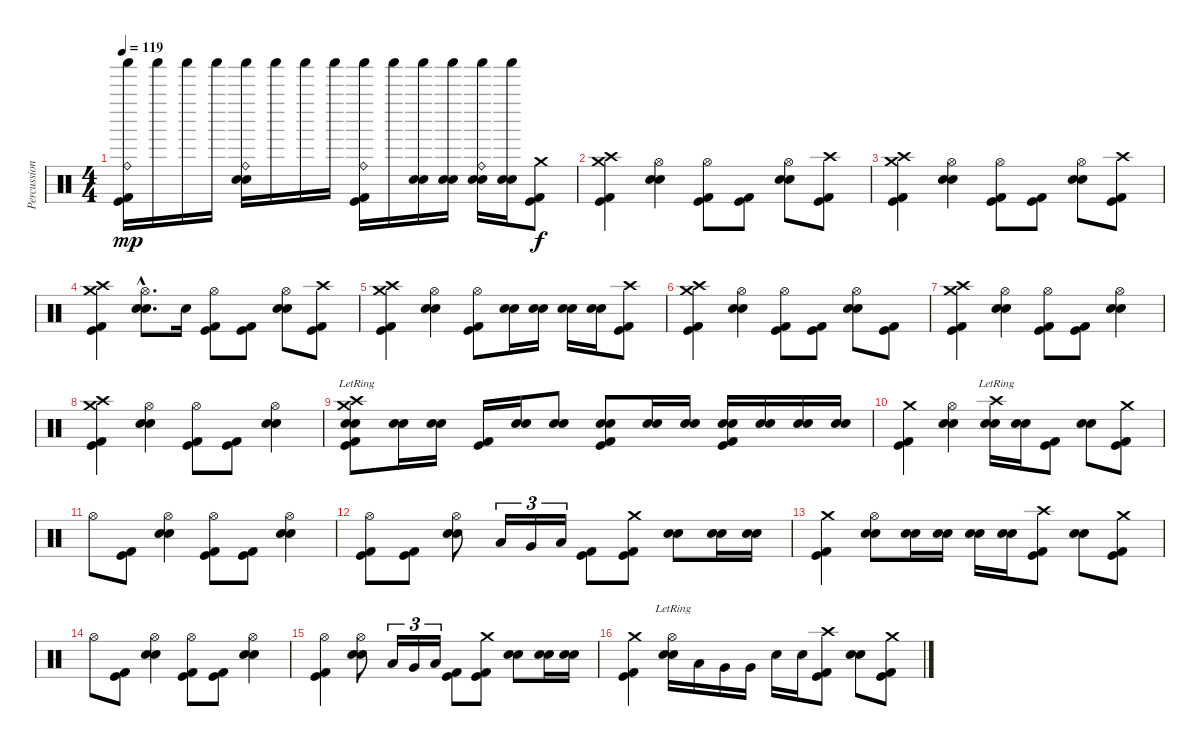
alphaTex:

\track ("Percussion" "Percussion") {instrument percussion}
\staff {score}
\articulation defaults
\ts (4 4)
\tempo 119
\clef neutral
\ks c
("Ride (bell)" "Kick (hit)" "Kick (hit) 2" "Shaker (hit)").16{dy mp} "Shaker (hit)".16 "Shaker (hit)".16 "Shaker (hit)".16 ("Ride (bell)" "Electric Snare (hit)" "Metronome (bell)" "Shaker (hit)").16 "Shaker (hit)".16 "Shaker (hit)".16 "Shaker (hit)".16 ("Ride (bell)" "Kick (hit)" "Kick (hit) 2" "Shaker (hit)").16 "Shaker (hit)".16 ("Electric Snare (hit)" "Metronome (bell)" "Shaker (hit)").16 ("Electric Snare (hit)" "Metronome (bell)" "Shaker (hit)").16 ("Ride (bell)" "Electric Snare (hit)" "Metronome (bell)" "Shaker (hit)").16 ("Electric Snare (hit)" "Metronome (bell)" "Shaker (hit)").16 ("Crash medium (hit)" "Kick (hit)" "Kick (hit) 2").8{dy f} |
("Crash medium (hit)" "Crash high (hit)" "Kick (hit)" "Kick (hit) 2").4 ("Hi-Hat (open)" "Electric Snare (hit)" "Metronome (bell)").4 ("Hi-Hat (open)" "Kick (hit)" "Kick (hit) 2").8 ("Kick (hit)" "Kick (hit) 2").8 ("Hi-Hat (open)" "Electric Snare (hit)" "Metronome (bell)").8 ("Crash high (hit)" "Kick (hit)" "Kick (hit) 2").8 |
("Crash medium (hit)" "Crash high (hit)" "Kick (hit)" "Kick (hit) 2").4 ("Hi-Hat (open)" "Electric Snare (hit)" "Metronome (bell)").4 ("Hi-Hat (open)" "Kick (hit)" "Kick (hit) 2").8 ("Kick (hit)" "Kick (hit) 2").8 ("Hi-Hat (open)" "Electric Snare (hit)" "Metronome (bell)").8 ("Crash high (hit)" "Kick (hit)" "Kick (hit) 2").8 |
("Crash medium (hit)" "Crash high (hit)" "Kick (hit)" "Kick (hit) 2").4 ("Hi-Hat (open)"{hac} "Electric Snare (hit)"{hac} "Metronome (bell)"{hac}).8{d} "Metronome (bell)".16 ("Hi-Hat (open)" "Kick (hit)" "Kick (hit) 2").8 ("Kick (hit)" "Kick (hit) 2").8 ("Hi-Hat (open)" "Electric Snare (hit)" "Metronome (bell)").8 ("Crash high (hit)" "Kick (hit)" "Kick (hit) 2").8 |
("Crash medium (hit)" "Crash high (hit)" "Kick (hit)" "Kick (hit) 2").4 ("Hi-Hat (open)" "Electric Snare (hit)" "Metronome (bell)").4 ("Hi-Hat (open)" "Kick (hit)" "Kick (hit) 2").8 ("Electric Snare (hit)" "Metronome (bell)").16 ("Electric Snare (hit)" "Metronome (bell)").16 ("Electric Snare (hit)" "Metronome (bell)").16 ("Electric Snare (hit)" "Metronome (bell)").16 ("Crash high (hit)" "Kick (hit)" "Kick (hit) 2").8 |
("Crash medium (hit)" "Crash high (hit)" "Kick (hit)" "Kick (hit) 2").4 ("Hi-Hat (open)" "Electric Snare (hit)" "Metronome (bell)").4 ("Hi-Hat (open)" "Kick (hit)" "Kick (hit) 2").8 ("Kick (hit)" "Kick (hit) 2").8 ("Hi-Hat (open)" "Electric Snare (hit)" "Metronome (bell)").8 ("Kick (hit)" "Kick (hit) 2").8 |
("Crash medium (hit)" "Crash high (hit)" "Kick (hit)" "Kick (hit) 2").4 ("Hi-Hat (open)" "Electric Snare (hit)" "Metronome (bell)").4 ("Hi-Hat (open)" "Kick (hit)" "Kick (hit) 2").8 ("Kick (hit)" "Kick (hit) 2").8 ("Hi-Hat (open)" "Electric Snare (hit)" "Metronome (bell)").4 |
("Crash medium (hit)" "Crash high (hit)" "Kick (hit)" "Kick (hit) 2").4 ("Hi-Hat (open)" "Electric Snare (hit)" "Metronome (bell)").4 ("Hi-Hat (open)" "Kick (hit)" "Kick (hit) 2").8 ("Kick (hit)" "Kick (hit) 2").8 ("Hi-Hat (open)" "Electric Snare (hit)" "Metronome (bell)").4 |
("Crash medium (hit)"{lr} "Crash high (hit)"{lr} "Electric Snare (hit)" "Metronome (bell)" "Kick (hit)" "Kick (hit) 2").8 ("Electric Snare (hit)" "Metronome (bell)").16 ("Electric Snare (hit)" "Metronome (bell)").16 ("Kick (hit)" "Kick (hit) 2").16 ("Electric Snare (hit)" "Metronome (bell)").16 ("Electric Snare (hit)" "Metronome (bell)").8 ("Electric Snare (hit)" "Metronome (bell)" "Kick (hit)" "Kick (hit) 2").8 ("Electric Snare (hit)" "Metronome (bell)").16 ("Electric Snare (hit)" "Metronome (bell)").16 ("Electric Snare (hit)" "Metronome (bell)" "Kick (hit)" "Kick (hit) 2").16 ("Electric Snare (hit)" "Metronome (bell)").16 ("Electric Snare (hit)" "Metronome (bell)").16 ("Electric Snare (hit)" "Metronome (bell)").16 |
("Crash medium (hit)" "Kick (hit)" "Kick (hit) 2").4 ("Hi-Hat (open)" "Electric Snare (hit)" "Metronome (bell)").4 ("Crash high (hit)"{lr} "Electric Snare (hit)" "Metronome (bell)").16 ("Electric Snare (hit)" "Metronome (bell)").16 ("Kick (hit)" "Kick (hit) 2").8 ("Electric Snare (hit)" "Metronome (bell)").8 ("Crash medium (hit)" "Kick (hit)" "Kick (hit) 2").8 |
"Hi-Hat (open)".8 ("Kick (hit)" "Kick (hit) 2").8 ("Hi-Hat (open)" "Electric Snare (hit)" "Metronome (bell)").4 ("Hi-Hat (open)" "Kick (hit)" "Kick (hit) 2").8 ("Kick (hit)" "Kick (hit) 2").8 ("Hi-Hat (open)" "Electric Snare (hit)" "Metronome (bell)").4 |
("Hi-Hat (open)" "Kick (hit)" "Kick (hit) 2").8 ("Kick (hit)" "Kick (hit) 2").8 ("Hi-Hat (open)" "Electric Snare (hit)" "Metronome (bell)").8 "Low Tom (hit)".16{tu (3 2)} "Very Low Tom (hit)".16{tu (3 2)} "Low Floor Tom (hit)".16{tu (3 2)} ("Kick (hit)" "Kick (hit) 2").8 ("Crash medium (hit)" "Kick (hit)" "Kick (hit) 2").8 ("Electric Snare (hit)" "Metronome (bell)").8 ("Electric Snare (hit)" "Metronome (bell)").16 ("Electric Snare (hit)" "Metronome (bell)").16 |
("Crash medium (hit)" "Kick (hit)" "Kick (hit) 2").4 ("Hi-Hat (open)" "Electric Snare (hit)" "Metronome (bell)").8 ("Electric Snare (hit)" "Metronome (bell)").16 ("Electric Snare (hit)" "Metronome (bell)").16 ("Electric Snare (hit)" "Metronome (bell)").16 ("Electric Snare (hit)" "Metronome (bell)").16 ("Crash high (hit)" "Kick (hit)" "Kick (hit) 2").8 ("Electric Snare (hit)" "Metronome (bell)").8 ("Crash medium (hit)" "Kick (hit)" "Kick (hit) 2").8 |
"Hi-Hat (open)".8 ("Kick (hit)" "Kick (hit) 2").8 ("Hi-Hat (open)" "Electric Snare (hit)" "Metronome (bell)").4 ("Hi-Hat (open)" "Kick (hit)" "Kick (hit) 2").8 ("Kick (hit)" "Kick (hit) 2").8 ("Hi-Hat (open)" "Electric Snare (hit)" "Metronome (bell)").4 |
("Hi-Hat (open)" "Kick (hit)" "Kick (hit) 2").4 ("Hi-Hat (open)" "Electric Snare (hit)" "Metronome (bell)").8 "Low Tom (hit)".16{tu (3 2)} "Very Low Tom (hit)".16{tu (3 2)} "Low Floor Tom (hit)".16{tu (3 2)} ("Kick (hit)" "Kick (hit) 2").8 ("Crash medium (hit)" "Kick (hit)" "Kick (hit) 2").8 ("Electric Snare (hit)" "Metronome (bell)").8 ("Electric Snare (hit)" "Metronome (bell)").16 ("Electric Snare (hit)" "Metronome (bell)").16 |
("Crash medium (hit)" "Kick (hit)" "Kick (hit) 2").4 ("Hi-Hat (open)"{lr} "Electric Snare (hit)" "Metronome (bell)").16 "Low Tom (hit)".16 "Very Low Tom (hit)".16 "Very Low Tom (hit)".16 "Metronome (bell)".16 "Metronome (bell)".16 ("Crash high (hit)" "Kick (hit)" "Kick (hit) 2").8 ("Electric Snare (hit)" "Metronome (bell)").8 ("Crash medium (hit)" "Kick (hit)" "Kick (hit) 2").8
